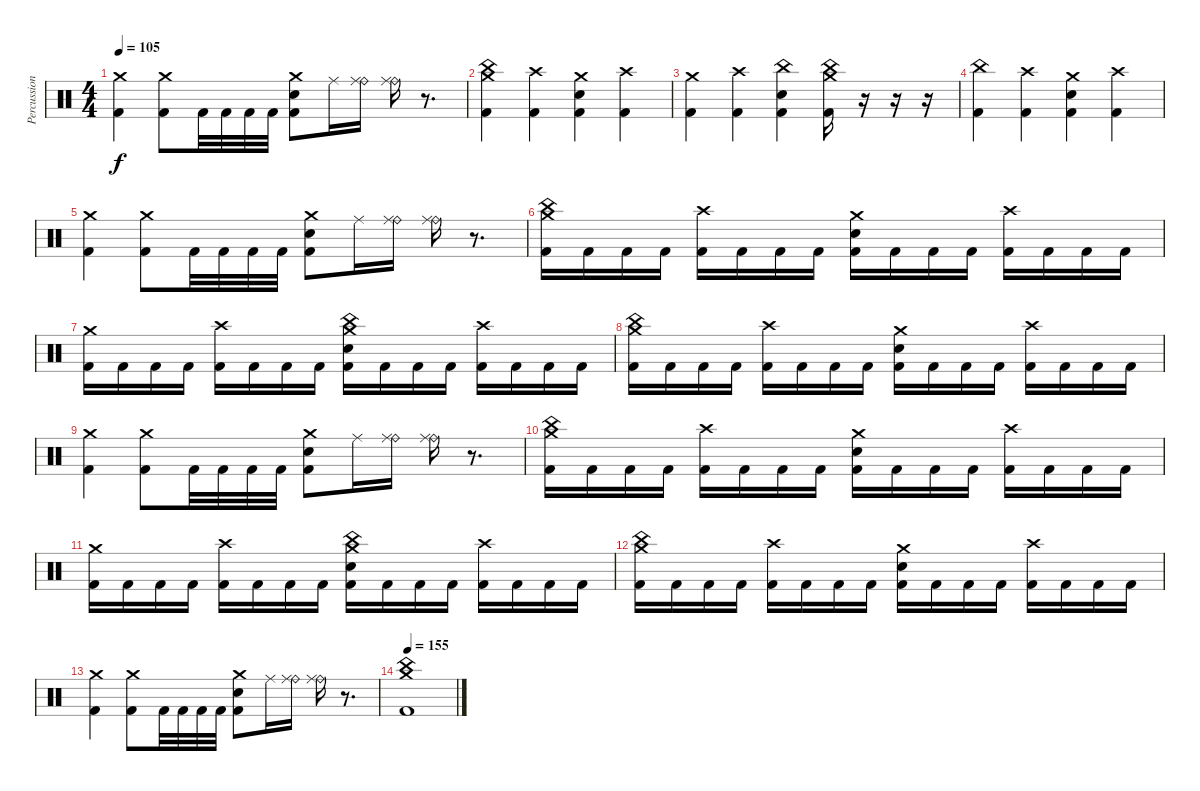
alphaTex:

\track ("Percussions" "Percussion") {instrument percussion}
\staff {score}
\articulation defaults
\ts (4 4)
\tempo 105
\clef neutral
\ks c
("Crash medium (hit)" "Kick (hit) 2").4{dy f} ("Crash medium (hit)" "Kick (hit) 2").8 "Kick (hit) 2".32 "Kick (hit) 2".32 "Kick (hit) 2".32 "Kick (hit) 2".32 ("Crash medium (hit)" "Electric Snare (hit)" "Kick (hit) 2").8 "Ride (middle)".16 ("Ride (bell)" "Ride (middle)").16 ("Ride (bell)" "Ride (middle)").16 r.8{d} |
("Crash medium (hit)" "China (hit)" "Kick (hit) 2").4 ("Crash high (hit)" "Kick (hit) 2").4 ("Crash medium (hit)" "Electric Snare (hit)" "Kick (hit) 2").4 ("Crash high (hit)" "Kick (hit) 2").4 |
("Crash medium (hit)" "Kick (hit) 2").4 ("Crash high (hit)" "Kick (hit) 2").4 ("China (hit)" "Electric Snare (hit)" "Kick (hit) 2").4 ("China (hit)" "Crash medium (hit)" "Kick (hit) 2").16 r.16 r.16 r.16 |
("China (hit)" "Kick (hit) 2").4 ("Crash high (hit)" "Kick (hit) 2").4 ("Crash medium (hit)" "Electric Snare (hit)" "Kick (hit) 2").4 ("Crash high (hit)" "Kick (hit) 2").4 |
("Crash medium (hit)" "Kick (hit) 2").4 ("Crash medium (hit)" "Kick (hit) 2").8 "Kick (hit) 2".32 "Kick (hit) 2".32 "Kick (hit) 2".32 "Kick (hit) 2".32 ("Crash medium (hit)" "Electric Snare (hit)" "Kick (hit) 2").8 "Ride (middle)".16 ("Ride (bell)" "Ride (middle)").16 ("Ride (bell)" "Ride (middle)").16 r.8{d} |
("Crash medium (hit)" "China (hit)" "Kick (hit) 2").16 "Kick (hit) 2".16 "Kick (hit) 2".16 "Kick (hit) 2".16 ("Crash high (hit)" "Kick (hit) 2").16 "Kick (hit) 2".16 "Kick (hit) 2".16 "Kick (hit) 2".16 ("Crash medium (hit)" "Electric Snare (hit)" "Kick (hit) 2").16 "Kick (hit) 2".16 "Kick (hit) 2".16 "Kick (hit) 2".16 ("Crash high (hit)" "Kick (hit) 2").16 "Kick (hit) 2".16 "Kick (hit) 2".16 "Kick (hit) 2".16 |
("Crash medium (hit)" "Kick (hit) 2").16 "Kick (hit) 2".16 "Kick (hit) 2".16 "Kick (hit) 2".16 ("Crash high (hit)" "Kick (hit) 2").16 "Kick (hit) 2".16 "Kick (hit) 2".16 "Kick (hit) 2".16 ("China (hit)" "Crash medium (hit)" "Electric Snare (hit)" "Kick (hit) 2").16 "Kick (hit) 2".16 "Kick (hit) 2".16 "Kick (hit) 2".16 ("Crash high (hit)" "Kick (hit) 2").16 "Kick (hit) 2".16 "Kick (hit) 2".16 "Kick (hit) 2".16 |
("Crash medium (hit)" "China (hit)" "Kick (hit) 2").16 "Kick (hit) 2".16 "Kick (hit) 2".16 "Kick (hit) 2".16 ("Crash high (hit)" "Kick (hit) 2").16 "Kick (hit) 2".16 "Kick (hit) 2".16 "Kick (hit) 2".16 ("Crash medium (hit)" "Electric Snare (hit)" "Kick (hit) 2").16 "Kick (hit) 2".16 "Kick (hit) 2".16 "Kick (hit) 2".16 ("Crash high (hit)" "Kick (hit) 2").16 "Kick (hit) 2".16 "Kick (hit) 2".16 "Kick (hit) 2".16 |
("Crash medium (hit)" "Kick (hit) 2").4 ("Crash medium (hit)" "Kick (hit) 2").8 "Kick (hit) 2".32 "Kick (hit) 2".32 "Kick (hit) 2".32 "Kick (hit) 2".32 ("Crash medium (hit)" "Electric Snare (hit)" "Kick (hit) 2").8 "Ride (middle)".16 ("Ride (bell)" "Ride (middle)").16 ("Ride (bell)" "Ride (middle)").16 r.8{d} |
("Crash medium (hit)" "China (hit)" "Kick (hit) 2").16 "Kick (hit) 2".16 "Kick (hit) 2".16 "Kick (hit) 2".16 ("Crash high (hit)" "Kick (hit) 2").16 "Kick (hit) 2".16 "Kick (hit) 2".16 "Kick (hit) 2".16 ("Crash medium (hit)" "Electric Snare (hit)" "Kick (hit) 2").16 "Kick (hit) 2".16 "Kick (hit) 2".16 "Kick (hit) 2".16 ("Crash high (hit)" "Kick (hit) 2").16 "Kick (hit) 2".16 "Kick (hit) 2".16 "Kick (hit) 2".16 |
("Crash medium (hit)" "Kick (hit) 2").16 "Kick (hit) 2".16 "Kick (hit) 2".16 "Kick (hit) 2".16 ("Crash high (hit)" "Kick (hit) 2").16 "Kick (hit) 2".16 "Kick (hit) 2".16 "Kick (hit) 2".16 ("China (hit)" "Crash medium (hit)" "Electric Snare (hit)" "Kick (hit) 2").16 "Kick (hit) 2".16 "Kick (hit) 2".16 "Kick (hit) 2".16 ("Crash high (hit)" "Kick (hit) 2").16 "Kick (hit) 2".16 "Kick (hit) 2".16 "Kick (hit) 2".16 |
("Crash medium (hit)" "China (hit)" "Kick (hit) 2").16 "Kick (hit) 2".16 "Kick (hit) 2".16 "Kick (hit) 2".16 ("Crash high (hit)" "Kick (hit) 2").16 "Kick (hit) 2".16 "Kick (hit) 2".16 "Kick (hit) 2".16 ("Crash medium (hit)" "Electric Snare (hit)" "Kick (hit) 2").16 "Kick (hit) 2".16 "Kick (hit) 2".16 "Kick (hit) 2".16 ("Crash high (hit)" "Kick (hit) 2").16 "Kick (hit) 2".16 "Kick (hit) 2".16 "Kick (hit) 2".16 |
("Crash medium (hit)" "Kick (hit) 2").4 ("Crash medium (hit)" "Kick (hit) 2").8 "Kick (hit) 2".32 "Kick (hit) 2".32 "Kick (hit) 2".32 "Kick (hit) 2".32 ("Crash medium (hit)" "Electric Snare (hit)" "Kick (hit) 2").8 "Ride (middle)".16 ("Ride (bell)" "Ride (middle)").16 ("Ride (bell)" "Ride (middle)").16 r.8{d} |
\tempo 155
("China (hit)" "Crash medium (hit)" "Kick (hit) 2").1
